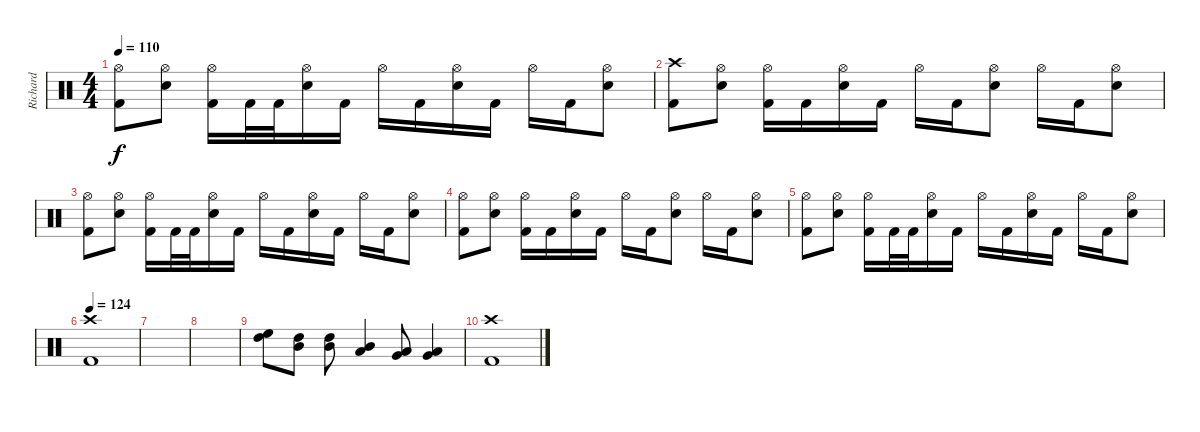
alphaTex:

\track ("Richard" "Richard") {instrument percussion}
\staff {score}
\articulation defaults
\ts (4 4)
\tempo 110
\clef neutral
\ks c
("Hi-Hat (open)" "Kick (hit) 2").8{dy f} ("Hi-Hat (open)" "Snare (hit) 2").8 ("Hi-Hat (open)" "Kick (hit) 2").16 "Kick (hit) 2".32 "Kick (hit) 2".32 ("Hi-Hat (open)" "Snare (hit) 2").16 "Kick (hit) 2".16 "Hi-Hat (open)".16 "Kick (hit) 2".16 ("Hi-Hat (open)" "Snare (hit) 2").16 "Kick (hit) 2".16 "Hi-Hat (open)".16 "Kick (hit) 2".16 ("Hi-Hat (open)" "Snare (hit) 2").8 |
("Crash high (hit)" "Kick (hit) 2").8 ("Hi-Hat (open)" "Snare (hit) 2").8 ("Hi-Hat (open)" "Kick (hit) 2").16 "Kick (hit) 2".16 ("Hi-Hat (open)" "Snare (hit) 2").16 "Kick (hit) 2".16 "Hi-Hat (open)".16 "Kick (hit) 2".16 ("Hi-Hat (open)" "Snare (hit) 2").8 "Hi-Hat (open)".16 "Kick (hit) 2".16 ("Hi-Hat (open)" "Snare (hit) 2").8 |
("Hi-Hat (open)" "Kick (hit) 2").8 ("Hi-Hat (open)" "Snare (hit) 2").8 ("Hi-Hat (open)" "Kick (hit) 2").16 "Kick (hit) 2".32 "Kick (hit) 2".32 ("Hi-Hat (open)" "Snare (hit) 2").16 "Kick (hit) 2".16 "Hi-Hat (open)".16 "Kick (hit) 2".16 ("Hi-Hat (open)" "Snare (hit) 2").16 "Kick (hit) 2".16 "Hi-Hat (open)".16 "Kick (hit) 2".16 ("Hi-Hat (open)" "Snare (hit) 2").8 |
("Hi-Hat (open)" "Kick (hit) 2").8 ("Hi-Hat (open)" "Snare (hit) 2").8 ("Hi-Hat (open)" "Kick (hit) 2").16 "Kick (hit) 2".16 ("Hi-Hat (open)" "Snare (hit) 2").16 "Kick (hit) 2".16 "Hi-Hat (open)".16 "Kick (hit) 2".16 ("Hi-Hat (open)" "Snare (hit) 2").8 "Hi-Hat (open)".16 "Kick (hit) 2".16 ("Hi-Hat (open)" "Snare (hit) 2").8 |
("Hi-Hat (open)" "Kick (hit) 2").8 ("Hi-Hat (open)" "Snare (hit) 2").8 ("Hi-Hat (open)" "Kick (hit) 2").16 "Kick (hit) 2".32 "Kick (hit) 2".32 ("Hi-Hat (open)" "Snare (hit) 2").16 "Kick (hit) 2".16 "Hi-Hat (open)".16 "Kick (hit) 2".16 ("Hi-Hat (open)" "Snare (hit) 2").16 "Kick (hit) 2".16 "Hi-Hat (open)".16 "Kick (hit) 2".16 ("Hi-Hat (open)" "Snare (hit) 2").8 |
\tempo 124
("Crash high (hit)" "Kick (hit) 2").1 |
|
|
("High Floor Tom (hit)" "High Tom (hit)").8 ("High Tom (hit)" "Mid Tom (hit)").8 ("High Tom (hit)" "Mid Tom (hit)").8 ("Mid Tom (hit)" "Low Tom (hit)").4 ("Low Tom (hit)" "Very Low Tom (hit)").8 ("Low Tom (hit)" "Very Low Tom (hit)").4 |
("Crash high (hit)" "Kick (hit) 2").1
